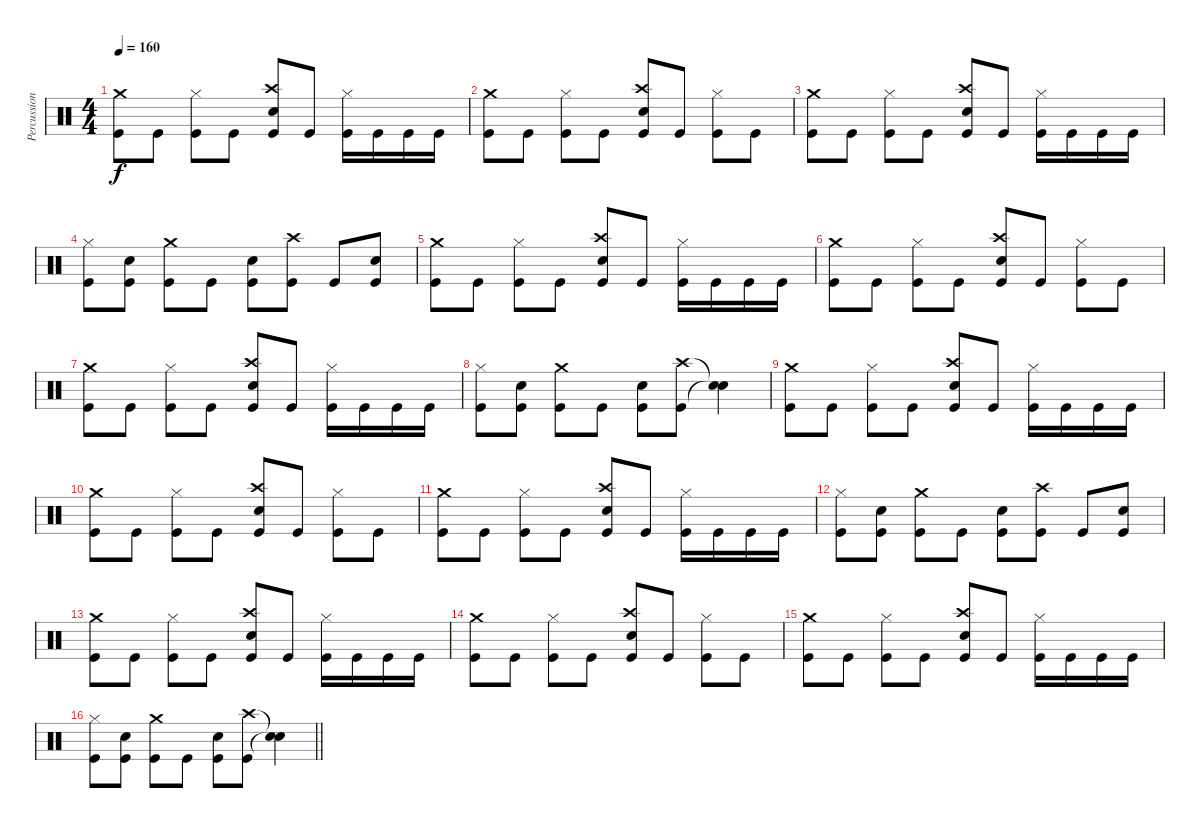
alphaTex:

\track ("Percussion" "Percussion") {instrument percussion}
\staff {score}
\articulation defaults
\ts (4 4)
\tempo 160
\clef neutral
\ks c
("Crash medium (hit)" "Kick (hit)").8{dy f} "Kick (hit)".8 ("Hi-Hat (closed)" "Kick (hit)").8 "Kick (hit)".8 ("Crash high (hit)" "Electric Snare (hit)" "Kick (hit)").8 "Kick (hit)".8 ("Hi-Hat (closed)" "Kick (hit)").16 "Kick (hit)".16 "Kick (hit)".16 "Kick (hit)".16 |
("Crash medium (hit)" "Kick (hit)").8 "Kick (hit)".8 ("Hi-Hat (closed)" "Kick (hit)").8 "Kick (hit)".8 ("Crash high (hit)" "Electric Snare (hit)" "Kick (hit)").8 "Kick (hit)".8 ("Hi-Hat (closed)" "Kick (hit)").8 "Kick (hit)".8 |
("Crash medium (hit)" "Kick (hit)").8 "Kick (hit)".8 ("Hi-Hat (closed)" "Kick (hit)").8 "Kick (hit)".8 ("Crash high (hit)" "Electric Snare (hit)" "Kick (hit)").8 "Kick (hit)".8 ("Hi-Hat (closed)" "Kick (hit)").16 "Kick (hit)".16 "Kick (hit)".16 "Kick (hit)".16 |
("Hi-Hat (closed)" "Kick (hit)").8 ("Electric Snare (hit)" "Kick (hit)").8 ("Crash medium (hit)" "Kick (hit)").8 "Kick (hit)".8 ("Electric Snare (hit)" "Kick (hit)").8 ("Crash high (hit)" "Kick (hit)").8 "Kick (hit)".8 ("Electric Snare (hit)" "Kick (hit)").8 |
("Crash medium (hit)" "Kick (hit)").8 "Kick (hit)".8 ("Hi-Hat (closed)" "Kick (hit)").8 "Kick (hit)".8 ("Crash high (hit)" "Electric Snare (hit)" "Kick (hit)").8 "Kick (hit)".8 ("Hi-Hat (closed)" "Kick (hit)").16 "Kick (hit)".16 "Kick (hit)".16 "Kick (hit)".16 |
("Crash medium (hit)" "Kick (hit)").8 "Kick (hit)".8 ("Hi-Hat (closed)" "Kick (hit)").8 "Kick (hit)".8 ("Crash high (hit)" "Electric Snare (hit)" "Kick (hit)").8 "Kick (hit)".8 ("Hi-Hat (closed)" "Kick (hit)").8 "Kick (hit)".8 |
("Crash medium (hit)" "Kick (hit)").8 "Kick (hit)".8 ("Hi-Hat (closed)" "Kick (hit)").8 "Kick (hit)".8 ("Crash high (hit)" "Electric Snare (hit)" "Kick (hit)").8 "Kick (hit)".8 ("Hi-Hat (closed)" "Kick (hit)").16 "Kick (hit)".16 "Kick (hit)".16 "Kick (hit)".16 |
("Hi-Hat (closed)" "Kick (hit)").8 ("Electric Snare (hit)" "Kick (hit)").8 ("Crash medium (hit)" "Kick (hit)").8 "Kick (hit)".8 ("Electric Snare (hit)" "Kick (hit)").8 ("Crash high (hit)" "Kick (hit)").8 ("Snare (hit)"{t} "Snare (hit)"{t}).4 |
("Crash medium (hit)" "Kick (hit)").8 "Kick (hit)".8 ("Hi-Hat (closed)" "Kick (hit)").8 "Kick (hit)".8 ("Crash high (hit)" "Electric Snare (hit)" "Kick (hit)").8 "Kick (hit)".8 ("Hi-Hat (closed)" "Kick (hit)").16 "Kick (hit)".16 "Kick (hit)".16 "Kick (hit)".16 |
("Crash medium (hit)" "Kick (hit)").8 "Kick (hit)".8 ("Hi-Hat (closed)" "Kick (hit)").8 "Kick (hit)".8 ("Crash high (hit)" "Electric Snare (hit)" "Kick (hit)").8 "Kick (hit)".8 ("Hi-Hat (closed)" "Kick (hit)").8 "Kick (hit)".8 |
("Crash medium (hit)" "Kick (hit)").8 "Kick (hit)".8 ("Hi-Hat (closed)" "Kick (hit)").8 "Kick (hit)".8 ("Crash high (hit)" "Electric Snare (hit)" "Kick (hit)").8 "Kick (hit)".8 ("Hi-Hat (closed)" "Kick (hit)").16 "Kick (hit)".16 "Kick (hit)".16 "Kick (hit)".16 |
("Hi-Hat (closed)" "Kick (hit)").8 ("Electric Snare (hit)" "Kick (hit)").8 ("Crash medium (hit)" "Kick (hit)").8 "Kick (hit)".8 ("Electric Snare (hit)" "Kick (hit)").8 ("Crash high (hit)" "Kick (hit)").8 "Kick (hit)".8 ("Electric Snare (hit)" "Kick (hit)").8 |
("Crash medium (hit)" "Kick (hit)").8 "Kick (hit)".8 ("Hi-Hat (closed)" "Kick (hit)").8 "Kick (hit)".8 ("Crash high (hit)" "Electric Snare (hit)" "Kick (hit)").8 "Kick (hit)".8 ("Hi-Hat (closed)" "Kick (hit)").16 "Kick (hit)".16 "Kick (hit)".16 "Kick (hit)".16 |
("Crash medium (hit)" "Kick (hit)").8 "Kick (hit)".8 ("Hi-Hat (closed)" "Kick (hit)").8 "Kick (hit)".8 ("Crash high (hit)" "Electric Snare (hit)" "Kick (hit)").8 "Kick (hit)".8 ("Hi-Hat (closed)" "Kick (hit)").8 "Kick (hit)".8 |
("Crash medium (hit)" "Kick (hit)").8 "Kick (hit)".8 ("Hi-Hat (closed)" "Kick (hit)").8 "Kick (hit)".8 ("Crash high (hit)" "Electric Snare (hit)" "Kick (hit)").8 "Kick (hit)".8 ("Hi-Hat (closed)" "Kick (hit)").16 "Kick (hit)".16 "Kick (hit)".16 "Kick (hit)".16 |
\barLineRight lightlight
("Hi-Hat (closed)" "Kick (hit)").8 ("Electric Snare (hit)" "Kick (hit)").8 ("Crash medium (hit)" "Kick (hit)").8 "Kick (hit)".8 ("Electric Snare (hit)" "Kick (hit)").8 ("Crash high (hit)" "Kick (hit)").8 ("Snare (hit)"{t} "Snare (hit)"{t}).4
